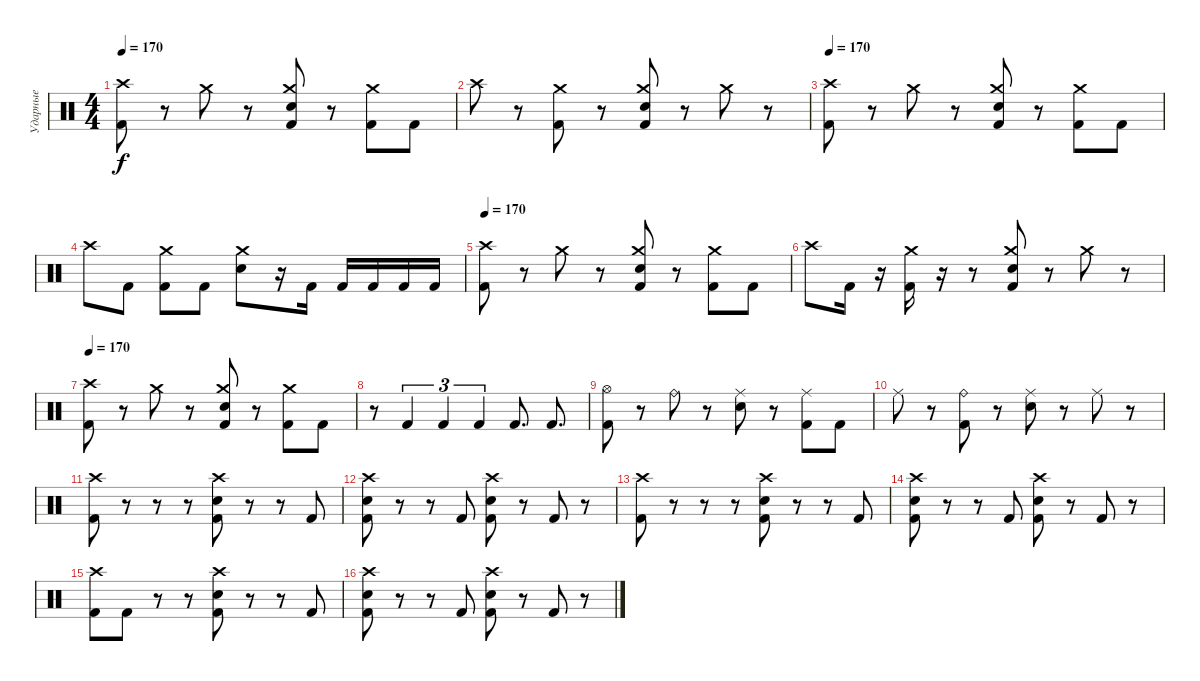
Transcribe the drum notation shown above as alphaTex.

\track ("Ударные" "Ударные") {instrument percussion}
\staff {score}
\articulation defaults
\ts (4 4)
\tempo 170
\clef neutral
\ks c
("Crash high (hit)" "Kick (hit) 2").8{dy f} r.8 "Crash medium (hit)".8 r.8 ("Crash medium (hit)" "Electric Snare (hit)" "Kick (hit) 2").8{bd 60} r.8 ("Crash medium (hit)" "Kick (hit) 2").8 "Kick (hit) 2".8 |
"Crash high (hit)".8 r.8 ("Crash medium (hit)" "Kick (hit) 2").8 r.8 ("Crash medium (hit)" "Electric Snare (hit)" "Kick (hit) 2").8{bd 60} r.8 "Crash medium (hit)".8 r.8 |
\tempo 170
("Crash high (hit)" "Kick (hit) 2").8 r.8 "Crash medium (hit)".8 r.8 ("Crash medium (hit)" "Electric Snare (hit)" "Kick (hit) 2").8{bd 60} r.8 ("Crash medium (hit)" "Kick (hit) 2").8 "Kick (hit) 2".8 |
"Crash high (hit)".8 "Kick (hit) 2".8 ("Crash medium (hit)" "Kick (hit) 2").8 "Kick (hit) 2".8 ("Crash medium (hit)" "Electric Snare (hit)").8 r.16 "Kick (hit) 2".16 "Kick (hit) 2".16 "Kick (hit) 2".16 "Kick (hit) 2".16 "Kick (hit) 2".16 |
\tempo 170
("Crash high (hit)" "Kick (hit) 2").8 r.8 "Crash medium (hit)".8 r.8 ("Crash medium (hit)" "Electric Snare (hit)" "Kick (hit) 2").8{bd 60} r.8 ("Crash medium (hit)" "Kick (hit) 2").8 "Kick (hit) 2".8 |
"Crash high (hit)".8 "Kick (hit) 2".16 r.16 ("Crash medium (hit)" "Kick (hit) 2").16 r.16 r.8 ("Crash medium (hit)" "Electric Snare (hit)" "Kick (hit) 2").8{bd 60} r.8 "Crash medium (hit)".8 r.8 |
\tempo 170
("Crash high (hit)" "Kick (hit) 2").8 r.8 "Crash medium (hit)".8 r.8 ("Crash medium (hit)" "Electric Snare (hit)" "Kick (hit) 2").8{bd 60} r.8 ("Crash medium (hit)" "Kick (hit) 2").8 "Kick (hit) 2".8 |
r.8 "Kick (hit) 2".4{tu (3 2)} "Kick (hit) 2".4{tu (3 2)} "Kick (hit) 2".4{tu (3 2)} "Kick (hit) 2".8{d} "Kick (hit) 2".8{d} |
("Hi-Hat (open)" "Kick (hit) 2").8 r.8 "Ride (bell)".8 r.8 ("Ride (middle)" "Electric Snare (hit)").8{bd 60} r.8 ("Ride (middle)" "Kick (hit) 2").8 "Kick (hit) 2".8 |
"Ride (middle)".8 r.8 ("Ride (bell)" "Kick (hit) 2").8 r.8 ("Ride (middle)" "Electric Snare (hit)").8{bd 60} r.8 "Ride (middle)".8 r.8 |
("Crash high (hit)" "Kick (hit) 2").8 r.8 r.8 r.8 ("Crash high (hit)" "Electric Snare (hit)" "Kick (hit) 2").8 r.8 r.8 "Kick (hit) 2".8 |
("Crash high (hit)" "Electric Snare (hit)" "Kick (hit) 2").8 r.8 r.8 "Kick (hit) 2".8 ("Crash high (hit)" "Electric Snare (hit)" "Kick (hit) 2").8 r.8 "Kick (hit) 2".8 r.8 |
("Crash high (hit)" "Kick (hit) 2").8 r.8 r.8 r.8 ("Crash high (hit)" "Electric Snare (hit)" "Kick (hit) 2").8 r.8 r.8 "Kick (hit) 2".8 |
("Crash high (hit)" "Electric Snare (hit)" "Kick (hit) 2").8 r.8 r.8 "Kick (hit) 2".8 ("Crash high (hit)" "Electric Snare (hit)" "Kick (hit) 2").8 r.8 "Kick (hit) 2".8 r.8 |
("Crash high (hit)" "Kick (hit) 2").8 "Kick (hit) 2".8 r.8 r.8 ("Crash high (hit)" "Electric Snare (hit)" "Kick (hit) 2").8 r.8 r.8 "Kick (hit) 2".8 |
("Crash high (hit)" "Electric Snare (hit)" "Kick (hit) 2").8 r.8 r.8 "Kick (hit) 2".8 ("Crash high (hit)" "Electric Snare (hit)" "Kick (hit) 2").8 r.8 "Kick (hit) 2".8 r.8
